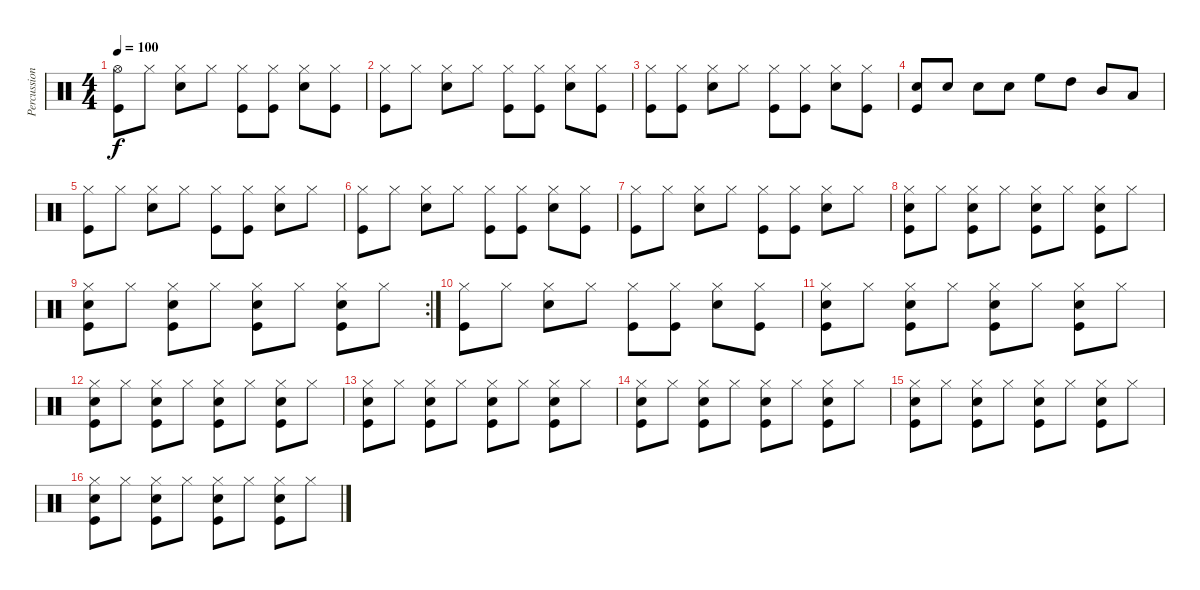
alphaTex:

\track ("Percussion" "Percussion") {instrument percussion}
\staff {score}
\articulation defaults
\ts (4 4)
\tempo 100
\clef neutral
\ks c
("Hi-Hat (open)" "Kick (hit)").8{dy f} "Hi-Hat (closed)".8 ("Hi-Hat (closed)" "Snare (hit) 2").8 "Hi-Hat (closed)".8 ("Hi-Hat (closed)" "Kick (hit)").8 ("Hi-Hat (closed)" "Kick (hit)").8 ("Hi-Hat (closed)" "Snare (hit) 2").8 ("Hi-Hat (closed)" "Kick (hit)").8 |
("Hi-Hat (closed)" "Kick (hit)").8 "Hi-Hat (closed)".8 ("Hi-Hat (closed)" "Snare (hit) 2").8 "Hi-Hat (closed)".8 ("Hi-Hat (closed)" "Kick (hit)").8 ("Hi-Hat (closed)" "Kick (hit)").8 ("Hi-Hat (closed)" "Snare (hit) 2").8 ("Hi-Hat (closed)" "Kick (hit)").8 |
("Hi-Hat (closed)" "Kick (hit)").8 ("Hi-Hat (closed)" "Kick (hit)").8 ("Hi-Hat (closed)" "Snare (hit) 2").8 "Hi-Hat (closed)".8 ("Hi-Hat (closed)" "Kick (hit)").8 ("Hi-Hat (closed)" "Kick (hit)").8 ("Hi-Hat (closed)" "Snare (hit) 2").8 ("Hi-Hat (closed)" "Kick (hit)").8 |
("Snare (hit) 2" "Kick (hit)").8 "Snare (hit) 2".8 "Snare (hit) 2".8 "Snare (hit) 2".8 "High Floor Tom (hit)".8 "High Tom (hit)".8 "Mid Tom (hit)".8 "Low Tom (hit)".8 |
("Hi-Hat (closed)" "Kick (hit)").8 "Hi-Hat (closed)".8 ("Hi-Hat (closed)" "Snare (hit) 2").8 "Hi-Hat (closed)".8 ("Hi-Hat (closed)" "Kick (hit)").8 ("Hi-Hat (closed)" "Kick (hit)").8 ("Hi-Hat (closed)" "Snare (hit) 2").8 "Hi-Hat (closed)".8 |
("Hi-Hat (closed)" "Kick (hit)").8 "Hi-Hat (closed)".8 ("Hi-Hat (closed)" "Snare (hit) 2").8 "Hi-Hat (closed)".8 ("Hi-Hat (closed)" "Kick (hit)").8 ("Hi-Hat (closed)" "Kick (hit)").8 ("Hi-Hat (closed)" "Snare (hit) 2").8 ("Hi-Hat (closed)" "Kick (hit)").8 |
("Hi-Hat (closed)" "Kick (hit)").8 "Hi-Hat (closed)".8 ("Hi-Hat (closed)" "Snare (hit) 2").8 "Hi-Hat (closed)".8 ("Hi-Hat (closed)" "Kick (hit)").8 ("Hi-Hat (closed)" "Kick (hit)").8 ("Hi-Hat (closed)" "Snare (hit) 2").8 "Hi-Hat (closed)".8 |
("Hi-Hat (closed)" "Snare (hit) 2" "Kick (hit)").8 "Hi-Hat (closed)".8 ("Hi-Hat (closed)" "Snare (hit) 2" "Kick (hit)").8 "Hi-Hat (closed)".8 ("Hi-Hat (closed)" "Snare (hit) 2" "Kick (hit)").8 "Hi-Hat (closed)".8 ("Hi-Hat (closed)" "Snare (hit) 2" "Kick (hit)").8 "Hi-Hat (closed)".8 |
\rc 2
("Hi-Hat (closed)" "Snare (hit) 2" "Kick (hit)").8 "Hi-Hat (closed)".8 ("Hi-Hat (closed)" "Snare (hit) 2" "Kick (hit)").8 "Hi-Hat (closed)".8 ("Hi-Hat (closed)" "Snare (hit) 2" "Kick (hit)").8 "Hi-Hat (closed)".8 ("Hi-Hat (closed)" "Snare (hit) 2" "Kick (hit)").8 "Hi-Hat (closed)".8 |
("Hi-Hat (closed)" "Kick (hit)").8 "Hi-Hat (closed)".8 ("Hi-Hat (closed)" "Snare (hit) 2").8 "Hi-Hat (closed)".8 ("Hi-Hat (closed)" "Kick (hit)").8 ("Hi-Hat (closed)" "Kick (hit)").8 ("Hi-Hat (closed)" "Snare (hit) 2").8 ("Hi-Hat (closed)" "Kick (hit)").8 |
("Hi-Hat (closed)" "Snare (hit) 2" "Kick (hit)").8 "Hi-Hat (closed)".8 ("Hi-Hat (closed)" "Snare (hit) 2" "Kick (hit)").8 "Hi-Hat (closed)".8 ("Hi-Hat (closed)" "Snare (hit) 2" "Kick (hit)").8 "Hi-Hat (closed)".8 ("Hi-Hat (closed)" "Snare (hit) 2" "Kick (hit)").8 "Hi-Hat (closed)".8 |
("Hi-Hat (closed)" "Snare (hit) 2" "Kick (hit)").8 "Hi-Hat (closed)".8 ("Hi-Hat (closed)" "Snare (hit) 2" "Kick (hit)").8 "Hi-Hat (closed)".8 ("Hi-Hat (closed)" "Snare (hit) 2" "Kick (hit)").8 "Hi-Hat (closed)".8 ("Hi-Hat (closed)" "Snare (hit) 2" "Kick (hit)").8 "Hi-Hat (closed)".8 |
("Hi-Hat (closed)" "Snare (hit) 2" "Kick (hit)").8 "Hi-Hat (closed)".8 ("Hi-Hat (closed)" "Snare (hit) 2" "Kick (hit)").8 "Hi-Hat (closed)".8 ("Hi-Hat (closed)" "Snare (hit) 2" "Kick (hit)").8 "Hi-Hat (closed)".8 ("Hi-Hat (closed)" "Snare (hit) 2" "Kick (hit)").8 "Hi-Hat (closed)".8 |
("Hi-Hat (closed)" "Snare (hit) 2" "Kick (hit)").8 "Hi-Hat (closed)".8 ("Hi-Hat (closed)" "Snare (hit) 2" "Kick (hit)").8 "Hi-Hat (closed)".8 ("Hi-Hat (closed)" "Snare (hit) 2" "Kick (hit)").8 "Hi-Hat (closed)".8 ("Hi-Hat (closed)" "Snare (hit) 2" "Kick (hit)").8 "Hi-Hat (closed)".8 |
("Hi-Hat (closed)" "Snare (hit) 2" "Kick (hit)").8 "Hi-Hat (closed)".8 ("Hi-Hat (closed)" "Snare (hit) 2" "Kick (hit)").8 "Hi-Hat (closed)".8 ("Hi-Hat (closed)" "Snare (hit) 2" "Kick (hit)").8 "Hi-Hat (closed)".8 ("Hi-Hat (closed)" "Snare (hit) 2" "Kick (hit)").8 "Hi-Hat (closed)".8 |
("Hi-Hat (closed)" "Snare (hit) 2" "Kick (hit)").8 "Hi-Hat (closed)".8 ("Hi-Hat (closed)" "Snare (hit) 2" "Kick (hit)").8 "Hi-Hat (closed)".8 ("Hi-Hat (closed)" "Snare (hit) 2" "Kick (hit)").8 "Hi-Hat (closed)".8 ("Hi-Hat (closed)" "Snare (hit) 2" "Kick (hit)").8 "Hi-Hat (closed)".8
